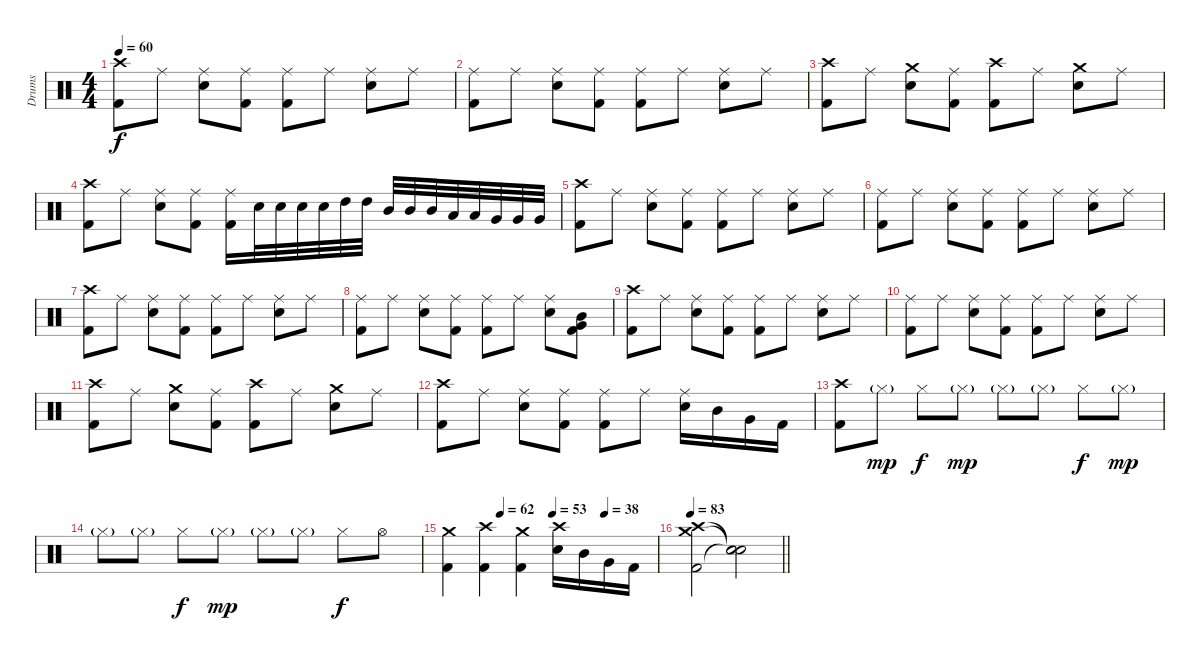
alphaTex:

\track ("Drums" "Drums") {instrument percussion}
\staff {score}
\articulation defaults
\ts (4 4)
\tempo 60
\clef neutral
\ks c
("Crash high (hit)" "Kick (hit) 2").8{dy f} "Ride (middle)".8 ("Ride (middle)" "Electric Snare (hit)").8 ("Ride (middle)" "Kick (hit) 2").8 ("Ride (middle)" "Kick (hit) 2").8 "Ride (middle)".8 ("Ride (middle)" "Electric Snare (hit)").8 "Ride (middle)".8 |
("Ride (middle)" "Kick (hit) 2").8 "Ride (middle)".8 ("Ride (middle)" "Electric Snare (hit)").8 ("Ride (middle)" "Kick (hit) 2").8 ("Ride (middle)" "Kick (hit) 2").8 "Ride (middle)".8 ("Ride (middle)" "Electric Snare (hit)").8 "Ride (middle)".8 |
("Crash high (hit)" "Kick (hit) 2").8 "Ride (middle)".8 ("Crash medium (hit)" "Electric Snare (hit)").8 ("Ride (middle)" "Kick (hit) 2").8 ("Crash high (hit)" "Kick (hit) 2").8 "Ride (middle)".8 ("Crash medium (hit)" "Electric Snare (hit)").8 "Ride (middle)".8 |
("Crash high (hit)" "Kick (hit) 2").8 "Ride (middle)".8 ("Ride (middle)" "Electric Snare (hit)").8 ("Ride (middle)" "Kick (hit) 2").8 ("Ride (middle)" "Kick (hit) 2").16 "Electric Snare (hit)".32 "Electric Snare (hit)".32 "Electric Snare (hit)".32 "Electric Snare (hit)".32 "High Tom (hit)".32{balance 14} "High Tom (hit)".32 "Mid Tom (hit)".32{balance 13} "Mid Tom (hit)".32 "Mid Tom (hit)".32 "Low Tom (hit)".32{balance 10} "Low Tom (hit)".32 "Very Low Tom (hit)".32{balance 8} "Very Low Tom (hit)".32 "Very Low Tom (hit)".32 |
("Crash high (hit)" "Kick (hit) 2").8 "Ride (middle)".8 ("Ride (middle)" "Electric Snare (hit)").8 ("Ride (middle)" "Kick (hit) 2").8 ("Ride (middle)" "Kick (hit) 2").8 "Ride (middle)".8 ("Ride (middle)" "Electric Snare (hit)").8 "Ride (middle)".8 |
("Ride (middle)" "Kick (hit) 2").8 "Ride (middle)".8 ("Ride (middle)" "Electric Snare (hit)").8 ("Ride (middle)" "Kick (hit) 2").8 ("Ride (middle)" "Kick (hit) 2").8 "Ride (middle)".8 ("Ride (middle)" "Electric Snare (hit)").8 "Ride (middle)".8 |
("Crash high (hit)" "Kick (hit) 2").8 "Ride (middle)".8 ("Ride (middle)" "Electric Snare (hit)").8 ("Ride (middle)" "Kick (hit) 2").8 ("Ride (middle)" "Kick (hit) 2").8 "Ride (middle)".8 ("Ride (middle)" "Electric Snare (hit)").8 "Ride (middle)".8 |
("Ride (middle)" "Kick (hit) 2").8 "Ride (middle)".8 ("Ride (middle)" "Electric Snare (hit)").8 ("Ride (middle)" "Kick (hit) 2").8 ("Ride (middle)" "Kick (hit) 2").8 "Ride (middle)".8 ("Ride (middle)" "Electric Snare (hit)").8 ("Mid Tom (hit)" "Very Low Tom (hit)" "Kick (hit) 2").8 |
("Crash high (hit)" "Kick (hit) 2").8 "Ride (middle)".8 ("Ride (middle)" "Electric Snare (hit)").8 ("Ride (middle)" "Kick (hit) 2").8 ("Ride (middle)" "Kick (hit) 2").8 "Ride (middle)".8 ("Ride (middle)" "Electric Snare (hit)").8 "Ride (middle)".8 |
("Ride (middle)" "Kick (hit) 2").8 "Ride (middle)".8 ("Ride (middle)" "Electric Snare (hit)").8 ("Ride (middle)" "Kick (hit) 2").8 ("Ride (middle)" "Kick (hit) 2").8 "Ride (middle)".8 ("Ride (middle)" "Electric Snare (hit)").8 "Ride (middle)".8 |
("Crash high (hit)" "Kick (hit) 2").8 "Ride (middle)".8 ("Crash medium (hit)" "Electric Snare (hit)").8 ("Ride (middle)" "Kick (hit) 2").8 ("Crash high (hit)" "Kick (hit) 2").8 "Ride (middle)".8 ("Crash medium (hit)" "Electric Snare (hit)").8 "Ride (middle)".8 |
("Crash high (hit)" "Kick (hit) 2").8 "Ride (middle)".8 ("Ride (middle)" "Electric Snare (hit)").8 ("Ride (middle)" "Kick (hit) 2").8 ("Ride (middle)" "Kick (hit) 2").8 "Ride (middle)".8 ("Ride (middle)" "Electric Snare (hit)").16 "Mid Tom (hit)".16{balance 13} "Very Low Tom (hit)".16{balance 11} "Kick (hit) 2".16{balance 8} |
("Crash high (hit)" "Kick (hit) 2").8 "Hi-Hat (closed)"{g}.8{dy mp} "Hi-Hat (closed)".8{dy f} "Hi-Hat (closed)"{g}.8{dy mp} "Hi-Hat (closed)"{g}.8 "Hi-Hat (closed)"{g}.8 "Hi-Hat (closed)".8{dy f} "Hi-Hat (closed)"{g}.8{dy mp} |
"Hi-Hat (closed)"{g}.8 "Hi-Hat (closed)"{g}.8 "Hi-Hat (closed)".8{dy f} "Hi-Hat (closed)"{g}.8{dy mp} "Hi-Hat (closed)"{g}.8 "Hi-Hat (closed)"{g}.8 "Hi-Hat (closed)".8{dy f} "Hi-Hat (open)".8 |
\tempo (62 0.25)
\tempo (53 0.5)
\tempo (38 0.75)
("Crash medium (hit)" "Kick (hit) 2").4 ("Crash high (hit)" "Kick (hit) 2").4 ("Crash medium (hit)" "Kick (hit) 2").4 ("Crash high (hit)" "Electric Snare (hit)").16 "Mid Tom (hit)".16 "Very Low Tom (hit)".16 "Kick (hit) 2".16 |
\tempo 83
\barLineRight lightlight
("Crash high (hit)" "Crash medium (hit)" "Kick (hit) 2").2 ("Snare (hit)"{t} "Snare (hit)"{t} "Snare (hit)"{t}).2
